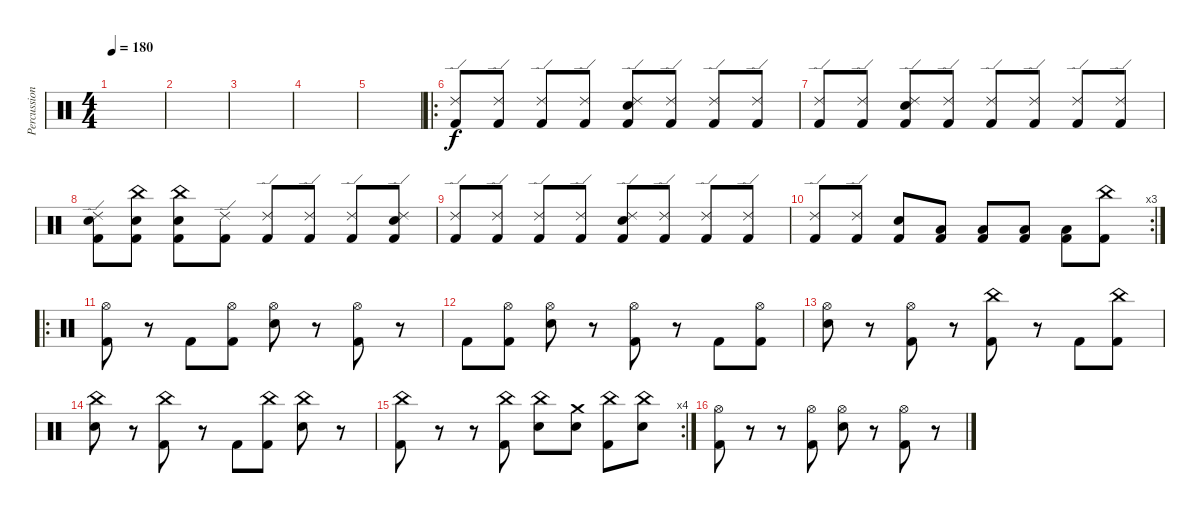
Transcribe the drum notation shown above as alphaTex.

\track ("Percussion" "Percussion") {instrument percussion}
\staff {score}
\articulation defaults
\ts (4 4)
\tempo 180
\clef neutral
\ks c
|
|
|
|
|
\ro
("Kick (hit) 2" "Ride (edge) 2").8 ("Kick (hit) 2" "Ride (edge) 2").8 ("Kick (hit) 2" "Ride (edge) 2").8 ("Kick (hit) 2" "Ride (edge) 2").8 ("Kick (hit) 2" "Snare (hit) 2" "Ride (edge) 2").8 ("Kick (hit) 2" "Ride (edge) 2").8 ("Kick (hit) 2" "Ride (edge) 2").8 ("Kick (hit) 2" "Ride (edge) 2").8 |
("Kick (hit) 2" "Ride (edge) 2").8 ("Kick (hit) 2" "Ride (edge) 2").8 ("Kick (hit) 2" "Snare (hit) 2" "Ride (edge) 2").8 ("Kick (hit) 2" "Ride (edge) 2").8 ("Kick (hit) 2" "Ride (edge) 2").8 ("Kick (hit) 2" "Ride (edge) 2").8 ("Kick (hit) 2" "Ride (edge) 2").8 ("Kick (hit) 2" "Ride (edge) 2").8 |
("Kick (hit) 2" "Snare (hit) 2" "Ride (edge) 2").8 ("Kick (hit) 2" "Snare (hit) 2" "China (hit)").8 ("Kick (hit) 2" "Snare (hit) 2" "China (hit)").8 ("Kick (hit) 2" "Ride (edge) 2").8 ("Kick (hit) 2" "Ride (edge) 2").8 ("Kick (hit) 2" "Ride (edge) 2").8 ("Kick (hit) 2" "Ride (edge) 2").8 ("Kick (hit) 2" "Snare (hit) 2" "Ride (edge) 2").8 |
("Kick (hit) 2" "Ride (edge) 2").8 ("Kick (hit) 2" "Ride (edge) 2").8 ("Kick (hit) 2" "Ride (edge) 2").8 ("Kick (hit) 2" "Ride (edge) 2").8 ("Kick (hit) 2" "Snare (hit) 2" "Ride (edge) 2").8 ("Kick (hit) 2" "Ride (edge) 2").8 ("Kick (hit) 2" "Ride (edge) 2").8 ("Kick (hit) 2" "Ride (edge) 2").8 |
\rc 3
("Kick (hit) 2" "Ride (edge) 2").8 ("Kick (hit) 2" "Ride (edge) 2").8 ("Kick (hit) 2" "Electric Snare (hit)").8 ("Kick (hit) 2" "Low Floor Tom (hit)").8 ("Kick (hit) 2" "Low Tom (hit)").8 ("Kick (hit) 2" "Low Tom (hit)").8 ("Kick (hit) 2" "Low Floor Tom (hit)").8 ("Kick (hit) 2" "China (hit)").8 |
\ro
("Kick (hit) 2" "Hi-Hat (open)").8 r.8 "Kick (hit) 2".8 ("Kick (hit) 2" "Hi-Hat (open)").8 ("Electric Snare (hit)" "Hi-Hat (open)").8 r.8 ("Kick (hit) 2" "Hi-Hat (open)").8 r.8 |
"Kick (hit) 2".8 ("Kick (hit) 2" "Hi-Hat (open)").8 ("Electric Snare (hit)" "Hi-Hat (open)").8 r.8 ("Kick (hit) 2" "Hi-Hat (open)").8 r.8 "Kick (hit) 2".8 ("Kick (hit) 2" "Hi-Hat (open)").8 |
("Electric Snare (hit)" "Hi-Hat (open)").8 r.8 ("Kick (hit) 2" "Hi-Hat (open)").8 r.8 ("Kick (hit) 2" "China (hit)").8 r.8 "Kick (hit) 2".8 ("Kick (hit) 2" "China (hit)").8 |
("Snare (hit) 2" "China (hit)").8 r.8 ("Kick (hit) 2" "China (hit)").8 r.8 "Kick (hit) 2".8 ("Kick (hit) 2" "China (hit)").8 ("Snare (hit) 2" "China (hit)").8 r.8 |
\rc 4
("Kick (hit) 2" "China (hit)").8 r.8 r.8 ("Kick (hit) 2" "China (hit)").8 ("Snare (hit) 2" "China (hit)").8 ("Electric Snare (hit)" "Crash medium (hit)").8 ("Kick (hit) 2" "China (hit)").8 ("Electric Snare (hit)" "China (hit)").8 |
("Kick (hit) 2" "Hi-Hat (open)").8 r.8 r.8 ("Kick (hit) 2" "Hi-Hat (open)").8 ("Electric Snare (hit)" "Hi-Hat (open)").8 r.8 ("Kick (hit) 2" "Hi-Hat (open)").8 r.8
